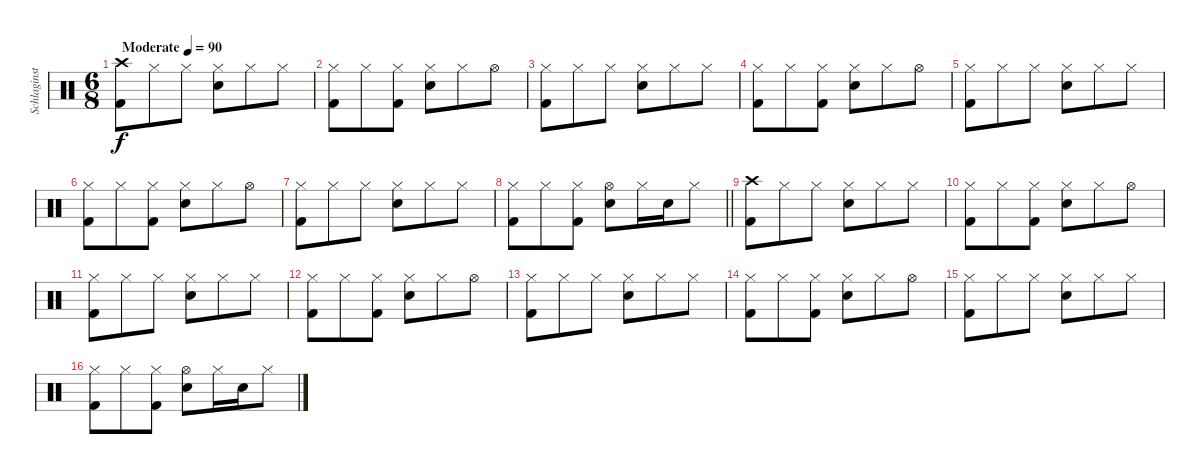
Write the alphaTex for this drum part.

\track ("Schlaginstrumente - Auswahl" "Schlaginst") {instrument percussion}
\staff {score}
\articulation defaults
\ts (6 8)
\tempo (90 "Moderate")
\clef neutral
\ks c
("Crash high (hit)" "Kick (hit) 2").8{dy f} "Hi-Hat (closed)".8 "Hi-Hat (closed)".8 ("Hi-Hat (closed)" "Snare (hit) 2").8 "Hi-Hat (closed)".8 "Hi-Hat (closed)".8 |
("Hi-Hat (closed)" "Kick (hit) 2").8 "Hi-Hat (closed)".8 ("Hi-Hat (closed)" "Kick (hit) 2").8 ("Hi-Hat (closed)" "Snare (hit) 2").8 "Hi-Hat (closed)".8 "Hi-Hat (open)".8 |
("Hi-Hat (closed)" "Kick (hit) 2").8 "Hi-Hat (closed)".8 "Hi-Hat (closed)".8 ("Hi-Hat (closed)" "Snare (hit) 2").8 "Hi-Hat (closed)".8 "Hi-Hat (closed)".8 |
("Hi-Hat (closed)" "Kick (hit) 2").8 "Hi-Hat (closed)".8 ("Hi-Hat (closed)" "Kick (hit) 2").8 ("Hi-Hat (closed)" "Snare (hit) 2").8 "Hi-Hat (closed)".8 "Hi-Hat (open)".8 |
("Hi-Hat (closed)" "Kick (hit) 2").8 "Hi-Hat (closed)".8 "Hi-Hat (closed)".8 ("Hi-Hat (closed)" "Snare (hit) 2").8 "Hi-Hat (closed)".8 "Hi-Hat (closed)".8 |
("Hi-Hat (closed)" "Kick (hit) 2").8 "Hi-Hat (closed)".8 ("Hi-Hat (closed)" "Kick (hit) 2").8 ("Hi-Hat (closed)" "Snare (hit) 2").8 "Hi-Hat (closed)".8 "Hi-Hat (open)".8 |
("Hi-Hat (closed)" "Kick (hit) 2").8 "Hi-Hat (closed)".8 "Hi-Hat (closed)".8 ("Hi-Hat (closed)" "Snare (hit) 2").8 "Hi-Hat (closed)".8 "Hi-Hat (closed)".8 |
\barLineRight lightlight
("Hi-Hat (closed)" "Kick (hit) 2").8 "Hi-Hat (closed)".8 ("Hi-Hat (closed)" "Kick (hit) 2").8 ("Hi-Hat (open)" "Snare (hit) 2").8 "Hi-Hat (closed)".16 "Snare (hit) 2".16 "Hi-Hat (closed)".8 |
("Crash high (hit)" "Kick (hit) 2").8 "Hi-Hat (closed)".8 "Hi-Hat (closed)".8 ("Hi-Hat (closed)" "Snare (hit) 2").8 "Hi-Hat (closed)".8 "Hi-Hat (closed)".8 |
("Hi-Hat (closed)" "Kick (hit) 2").8 "Hi-Hat (closed)".8 ("Hi-Hat (closed)" "Kick (hit) 2").8 ("Hi-Hat (closed)" "Snare (hit) 2").8 "Hi-Hat (closed)".8 "Hi-Hat (open)".8 |
("Hi-Hat (closed)" "Kick (hit) 2").8 "Hi-Hat (closed)".8 "Hi-Hat (closed)".8 ("Hi-Hat (closed)" "Snare (hit) 2").8 "Hi-Hat (closed)".8 "Hi-Hat (closed)".8 |
("Hi-Hat (closed)" "Kick (hit) 2").8 "Hi-Hat (closed)".8 ("Hi-Hat (closed)" "Kick (hit) 2").8 ("Hi-Hat (closed)" "Snare (hit) 2").8 "Hi-Hat (closed)".8 "Hi-Hat (open)".8 |
("Hi-Hat (closed)" "Kick (hit) 2").8 "Hi-Hat (closed)".8 "Hi-Hat (closed)".8 ("Hi-Hat (closed)" "Snare (hit) 2").8 "Hi-Hat (closed)".8 "Hi-Hat (closed)".8 |
("Hi-Hat (closed)" "Kick (hit) 2").8 "Hi-Hat (closed)".8 ("Hi-Hat (closed)" "Kick (hit) 2").8 ("Hi-Hat (closed)" "Snare (hit) 2").8 "Hi-Hat (closed)".8 "Hi-Hat (open)".8 |
("Hi-Hat (closed)" "Kick (hit) 2").8 "Hi-Hat (closed)".8 "Hi-Hat (closed)".8 ("Hi-Hat (closed)" "Snare (hit) 2").8 "Hi-Hat (closed)".8 "Hi-Hat (closed)".8 |
("Hi-Hat (closed)" "Kick (hit) 2").8 "Hi-Hat (closed)".8 ("Hi-Hat (closed)" "Kick (hit) 2").8 ("Hi-Hat (open)" "Snare (hit) 2").8 "Hi-Hat (closed)".16 "Snare (hit) 2".16 "Hi-Hat (closed)".8
